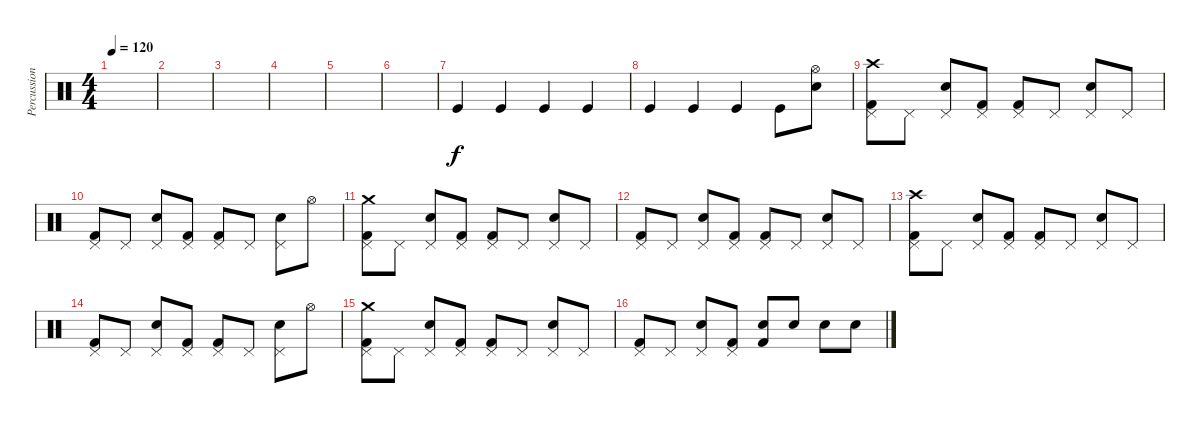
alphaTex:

\track ("Percussion" "Percussion") {instrument percussion}
\staff {score}
\articulation defaults
\ts (4 4)
\tempo 120
\clef neutral
\ks c
|
|
|
|
|
|
"Kick (hit)".4 "Kick (hit)".4 "Kick (hit)".4 "Kick (hit)".4 |
"Kick (hit)".4 "Kick (hit)".4 "Kick (hit)".4 "Kick (hit)".8 ("Snare (hit) 2" "Hi-Hat (open)").8 |
("Crash high (hit)" "Pedal Hi-Hat (hit)" "Kick (hit) 2").8 "Pedal Hi-Hat (hit)".8 ("Snare (hit) 2" "Pedal Hi-Hat (hit)").8 ("Pedal Hi-Hat (hit)" "Kick (hit) 2").8 ("Pedal Hi-Hat (hit)" "Kick (hit) 2").8 "Pedal Hi-Hat (hit)".8 ("Snare (hit) 2" "Pedal Hi-Hat (hit)").8 "Pedal Hi-Hat (hit)".8 |
("Pedal Hi-Hat (hit)" "Kick (hit) 2").8 "Pedal Hi-Hat (hit)".8 ("Snare (hit) 2" "Pedal Hi-Hat (hit)").8 ("Pedal Hi-Hat (hit)" "Kick (hit) 2").8 ("Pedal Hi-Hat (hit)" "Kick (hit) 2").8 "Pedal Hi-Hat (hit)".8 ("Snare (hit) 2" "Pedal Hi-Hat (hit)").8 "Hi-Hat (open)".8 |
("Crash medium (hit)" "Pedal Hi-Hat (hit)" "Kick (hit) 2").8 "Pedal Hi-Hat (hit)".8 ("Snare (hit) 2" "Pedal Hi-Hat (hit)").8 ("Pedal Hi-Hat (hit)" "Kick (hit) 2").8 ("Pedal Hi-Hat (hit)" "Kick (hit) 2").8 "Pedal Hi-Hat (hit)".8 ("Snare (hit) 2" "Pedal Hi-Hat (hit)").8 "Pedal Hi-Hat (hit)".8 |
("Pedal Hi-Hat (hit)" "Kick (hit) 2").8 "Pedal Hi-Hat (hit)".8 ("Snare (hit) 2" "Pedal Hi-Hat (hit)").8 ("Pedal Hi-Hat (hit)" "Kick (hit) 2").8 ("Pedal Hi-Hat (hit)" "Kick (hit) 2").8 "Pedal Hi-Hat (hit)".8 ("Snare (hit) 2" "Pedal Hi-Hat (hit)").8 "Pedal Hi-Hat (hit)".8 |
("Crash high (hit)" "Pedal Hi-Hat (hit)" "Kick (hit) 2").8 "Pedal Hi-Hat (hit)".8 ("Snare (hit) 2" "Pedal Hi-Hat (hit)").8 ("Pedal Hi-Hat (hit)" "Kick (hit) 2").8 ("Pedal Hi-Hat (hit)" "Kick (hit) 2").8 "Pedal Hi-Hat (hit)".8 ("Snare (hit) 2" "Pedal Hi-Hat (hit)").8 "Pedal Hi-Hat (hit)".8 |
("Pedal Hi-Hat (hit)" "Kick (hit) 2").8 "Pedal Hi-Hat (hit)".8 ("Snare (hit) 2" "Pedal Hi-Hat (hit)").8 ("Pedal Hi-Hat (hit)" "Kick (hit) 2").8 ("Pedal Hi-Hat (hit)" "Kick (hit) 2").8 "Pedal Hi-Hat (hit)".8 ("Snare (hit) 2" "Pedal Hi-Hat (hit)").8 "Hi-Hat (open)".8 |
("Crash medium (hit)" "Pedal Hi-Hat (hit)" "Kick (hit) 2").8 "Pedal Hi-Hat (hit)".8 ("Snare (hit) 2" "Pedal Hi-Hat (hit)").8 ("Pedal Hi-Hat (hit)" "Kick (hit) 2").8 ("Pedal Hi-Hat (hit)" "Kick (hit) 2").8 "Pedal Hi-Hat (hit)".8 ("Snare (hit) 2" "Pedal Hi-Hat (hit)").8 "Pedal Hi-Hat (hit)".8 |
("Pedal Hi-Hat (hit)" "Kick (hit) 2").8 "Pedal Hi-Hat (hit)".8 ("Snare (hit) 2" "Pedal Hi-Hat (hit)").8 ("Pedal Hi-Hat (hit)" "Kick (hit) 2").8 ("Snare (hit) 2" "Kick (hit) 2").8 "Snare (hit) 2".8 "Snare (hit) 2".8 "Snare (hit) 2".8
